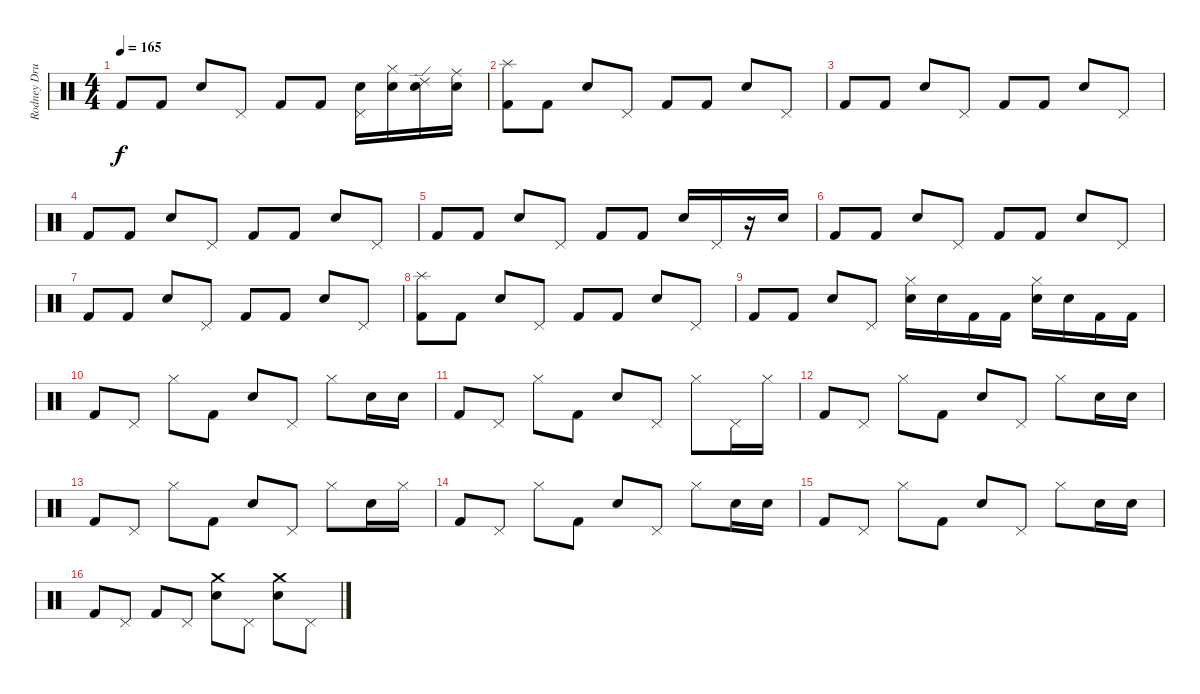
\track ("Rodney Drums" "Rodney Dru") {instrument percussion}
\staff {score}
\articulation defaults
\ts (4 4)
\tempo 165
\clef neutral
\ks c "Kick (hit) 2".8{dy f} "Kick (hit) 2".8 "Electric Snare (hit)".8 "Pedal Hi-Hat (hit)".8 "Kick (hit) 2".8 "Kick (hit) 2".8
("Pedal Hi-Hat (hit)" "Electric Snare (hit)").16 ("Hi-Hat (closed)" "Electric Snare (hit)").16 ("Ride (edge) 2" "Electric Snare (hit)").16 ("Ride (middle)" "Electric Snare (hit)").16 |
("Splash (hit)" "Kick (hit) 2").8 "Kick (hit) 2".8 "Electric Snare (hit)".8 "Pedal Hi-Hat (hit)".8 "Kick (hit) 2".8 "Kick (hit) 2".8 "Electric Snare (hit)".8 "Pedal Hi-Hat (hit)".8 |
"Kick (hit) 2".8 "Kick (hit) 2".8 "Electric Snare (hit)".8 "Pedal Hi-Hat (hit)".8 "Kick (hit) 2".8 "Kick (hit) 2".8 "Electric Snare (hit)".8 "Pedal Hi-Hat (hit)".8 |
"Kick (hit) 2".8 "Kick (hit) 2".8 "Electric Snare (hit)".8 "Pedal Hi-Hat (hit)".8 "Kick (hit) 2".8 "Kick (hit) 2".8 "Electric Snare (hit)".8 "Pedal Hi-Hat (hit)".8 |
"Kick (hit) 2".8 "Kick (hit) 2".8 "Electric Snare (hit)".8 "Pedal Hi-Hat (hit)".8 "Kick (hit) 2".8 "Kick (hit) 2".8 "Electric Snare (hit)".16 "Pedal Hi-Hat (hit)".16 r.16 "Electric Snare (hit)".16 |
"Kick (hit) 2".8 "Kick (hit) 2".8 "Electric Snare (hit)".8 "Pedal Hi-Hat (hit)".8 "Kick (hit) 2".8 "Kick (hit) 2".8 "Electric Snare (hit)".8 "Pedal Hi-Hat (hit)".8 |
"Kick (hit) 2".8 "Kick (hit) 2".8 "Electric Snare (hit)".8 "Pedal Hi-Hat (hit)".8 "Kick (hit) 2".8 "Kick (hit) 2".8 "Electric Snare (hit)".8 "Pedal Hi-Hat (hit)".8 |
("Splash (hit)" "Kick (hit) 2").8 "Kick (hit) 2".8 "Electric Snare (hit)".8 "Pedal Hi-Hat (hit)".8 "Kick (hit) 2".8 "Kick (hit) 2".8 "Electric Snare (hit)".8 "Pedal Hi-Hat (hit)".8 |
"Kick (hit) 2".8 "Kick (hit) 2".8 "Electric Snare (hit)".8 "Pedal Hi-Hat (hit)".8 ("Hi-Hat (closed)" "Electric Snare (hit)").16 "Electric Snare (hit)".16 "Kick (hit) 2".16 "Kick (hit) 2".16 ("Hi-Hat (closed)" "Electric Snare (hit)").16 "Electric Snare (hit)".16 "Kick (hit) 2".16 "Kick (hit) 2".16 |
"Kick (hit) 2".8 "Pedal Hi-Hat (hit)".8 "Hi-Hat (closed)".8 "Kick (hit) 2".8 "Electric Snare (hit)".8 "Pedal Hi-Hat (hit)".8 "Hi-Hat (closed)".8 "Electric Snare (hit)".16 "Electric Snare (hit)".16 |
"Kick (hit) 2".8 "Pedal Hi-Hat (hit)".8 "Hi-Hat (closed)".8 "Kick (hit) 2".8 "Electric Snare (hit)".8 "Pedal Hi-Hat (hit)".8 "Hi-Hat (closed)".8 "Pedal Hi-Hat (hit)".16 "Hi-Hat (closed)".16 |
"Kick (hit) 2".8 "Pedal Hi-Hat (hit)".8 "Hi-Hat (closed)".8 "Kick (hit) 2".8 "Electric Snare (hit)".8 "Pedal Hi-Hat (hit)".8 "Hi-Hat (closed)".8 "Electric Snare (hit)".16 "Electric Snare (hit)".16 |
"Kick (hit) 2".8 "Pedal Hi-Hat (hit)".8 "Hi-Hat (closed)".8 "Kick (hit) 2".8 "Electric Snare (hit)".8 "Pedal Hi-Hat (hit)".8 "Hi-Hat (closed)".8 "Electric Snare (hit)".16 "Hi-Hat (closed)".16 |
"Kick (hit) 2".8 "Pedal Hi-Hat (hit)".8 "Hi-Hat (closed)".8 "Kick (hit) 2".8 "Electric Snare (hit)".8 "Pedal Hi-Hat (hit)".8 "Hi-Hat (closed)".8 "Electric Snare (hit)".16 "Electric Snare (hit)".16 |
"Kick (hit) 2".8 "Pedal Hi-Hat (hit)".8 "Hi-Hat (closed)".8 "Kick (hit) 2".8 "Electric Snare (hit)".8 "Pedal Hi-Hat (hit)".8 "Hi-Hat (closed)".8 "Electric Snare (hit)".16 "Electric Snare (hit)".16 |
"Kick (hit) 2".8 "Pedal Hi-Hat (hit)".8 "Kick (hit) 2".8 "Pedal Hi-Hat (hit)".8 ("Crash medium (hit)" "Electric Snare (hit)").8 "Pedal Hi-Hat (hit)".8 ("Crash medium (hit)" "Electric Snare (hit)").8 "Pedal Hi-Hat (hit)".8
